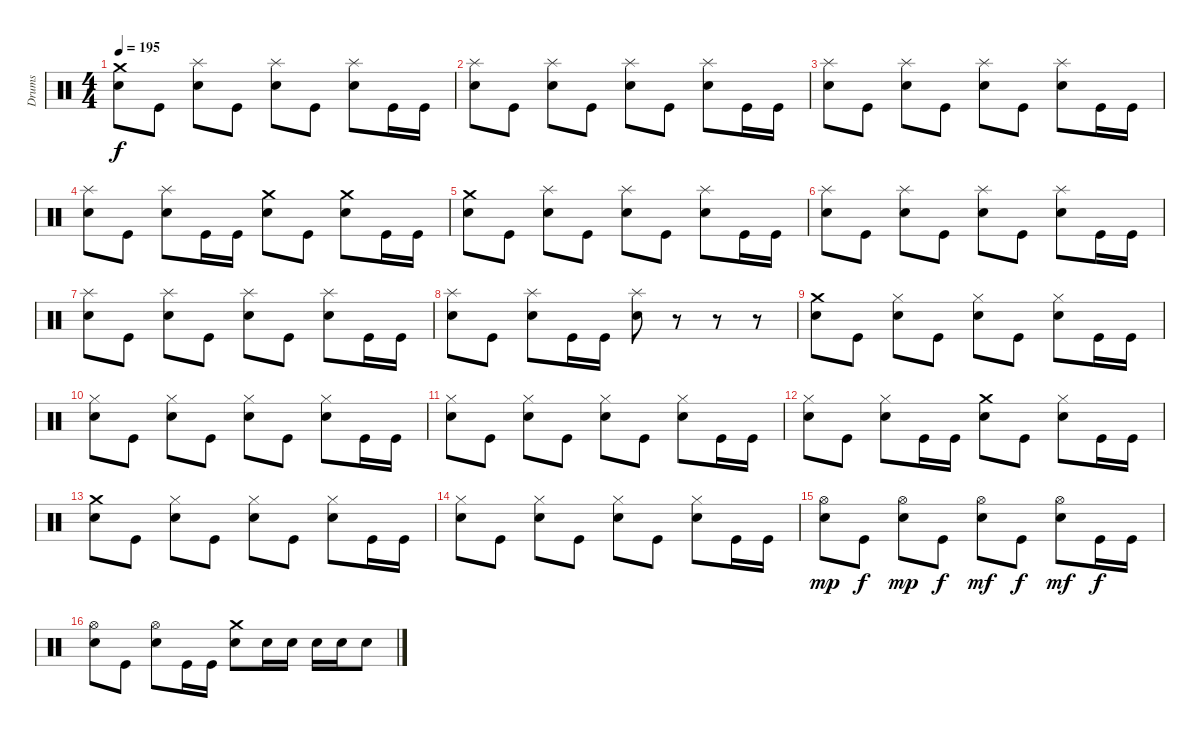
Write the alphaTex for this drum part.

\track ("Drums" "Drums") {instrument percussion}
\staff {score}
\articulation defaults
\ts (4 4)
\tempo 195
\clef neutral
\ks c
("Crash medium (hit)" "Electric Snare (hit)").8{dy f} "Kick (hit)".8 ("Splash (hit)" "Electric Snare (hit)").8 "Kick (hit)".8 ("Splash (hit)" "Electric Snare (hit)").8 "Kick (hit)".8 ("Splash (hit)" "Electric Snare (hit)").8 "Kick (hit)".16 "Kick (hit)".16 |
("Splash (hit)" "Electric Snare (hit)").8 "Kick (hit)".8 ("Splash (hit)" "Electric Snare (hit)").8 "Kick (hit)".8 ("Splash (hit)" "Electric Snare (hit)").8 "Kick (hit)".8 ("Splash (hit)" "Electric Snare (hit)").8 "Kick (hit)".16 "Kick (hit)".16 |
("Splash (hit)" "Electric Snare (hit)").8 "Kick (hit)".8 ("Splash (hit)" "Electric Snare (hit)").8 "Kick (hit)".8 ("Splash (hit)" "Electric Snare (hit)").8 "Kick (hit)".8 ("Splash (hit)" "Electric Snare (hit)").8 "Kick (hit)".16 "Kick (hit)".16 |
("Splash (hit)" "Electric Snare (hit)").8 "Kick (hit)".8 ("Splash (hit)" "Electric Snare (hit)").8 "Kick (hit)".16 "Kick (hit)".16 ("Crash medium (hit)" "Electric Snare (hit)").8 "Kick (hit)".8 ("Crash medium (hit)" "Electric Snare (hit)").8 "Kick (hit)".16 "Kick (hit)".16 |
("Crash medium (hit)" "Electric Snare (hit)").8 "Kick (hit)".8 ("Splash (hit)" "Electric Snare (hit)").8 "Kick (hit)".8 ("Splash (hit)" "Electric Snare (hit)").8 "Kick (hit)".8 ("Splash (hit)" "Electric Snare (hit)").8 "Kick (hit)".16 "Kick (hit)".16 |
("Splash (hit)" "Electric Snare (hit)").8 "Kick (hit)".8 ("Splash (hit)" "Electric Snare (hit)").8 "Kick (hit)".8 ("Splash (hit)" "Electric Snare (hit)").8 "Kick (hit)".8 ("Splash (hit)" "Electric Snare (hit)").8 "Kick (hit)".16 "Kick (hit)".16 |
("Splash (hit)" "Electric Snare (hit)").8 "Kick (hit)".8 ("Splash (hit)" "Electric Snare (hit)").8 "Kick (hit)".8 ("Splash (hit)" "Electric Snare (hit)").8 "Kick (hit)".8 ("Splash (hit)" "Electric Snare (hit)").8 "Kick (hit)".16 "Kick (hit)".16 |
("Splash (hit)" "Electric Snare (hit)").8 "Kick (hit)".8 ("Splash (hit)" "Electric Snare (hit)").8 "Kick (hit)".16 "Kick (hit)".16 ("Splash (hit)" "Electric Snare (hit)").8 r.8 r.8 r.8 |
("Crash medium (hit)" "Electric Snare (hit)").8 "Kick (hit)".8 ("Hi-Hat (closed)" "Electric Snare (hit)").8 "Kick (hit)".8 ("Hi-Hat (closed)" "Electric Snare (hit)").8 "Kick (hit)".8 ("Hi-Hat (closed)" "Electric Snare (hit)").8 "Kick (hit)".16 "Kick (hit)".16 |
("Hi-Hat (closed)" "Electric Snare (hit)").8 "Kick (hit)".8 ("Hi-Hat (closed)" "Electric Snare (hit)").8 "Kick (hit)".8 ("Hi-Hat (closed)" "Electric Snare (hit)").8 "Kick (hit)".8 ("Hi-Hat (closed)" "Electric Snare (hit)").8 "Kick (hit)".16 "Kick (hit)".16 |
("Hi-Hat (closed)" "Electric Snare (hit)").8 "Kick (hit)".8 ("Hi-Hat (closed)" "Electric Snare (hit)").8 "Kick (hit)".8 ("Hi-Hat (closed)" "Electric Snare (hit)").8 "Kick (hit)".8 ("Hi-Hat (closed)" "Electric Snare (hit)").8 "Kick (hit)".16 "Kick (hit)".16 |
("Hi-Hat (closed)" "Electric Snare (hit)").8 "Kick (hit)".8 ("Hi-Hat (closed)" "Electric Snare (hit)").8 "Kick (hit)".16 "Kick (hit)".16 ("Crash medium (hit)" "Electric Snare (hit)").8 "Kick (hit)".8 ("Hi-Hat (closed)" "Electric Snare (hit)").8 "Kick (hit)".16 "Kick (hit)".16 |
("Crash medium (hit)" "Electric Snare (hit)").8 "Kick (hit)".8 ("Hi-Hat (closed)" "Electric Snare (hit)").8 "Kick (hit)".8 ("Hi-Hat (closed)" "Electric Snare (hit)").8 "Kick (hit)".8 ("Hi-Hat (closed)" "Electric Snare (hit)").8 "Kick (hit)".16 "Kick (hit)".16 |
("Hi-Hat (closed)" "Electric Snare (hit)").8 "Kick (hit)".8 ("Hi-Hat (closed)" "Electric Snare (hit)").8 "Kick (hit)".8 ("Hi-Hat (closed)" "Electric Snare (hit)").8 "Kick (hit)".8 ("Hi-Hat (closed)" "Electric Snare (hit)").8 "Kick (hit)".16 "Kick (hit)".16 |
("Hi-Hat (open)" "Electric Snare (hit)").8{dy mp} "Kick (hit)".8{dy f} ("Hi-Hat (open)" "Electric Snare (hit)").8{dy mp} "Kick (hit)".8{dy f} ("Hi-Hat (open)" "Electric Snare (hit)").8{dy mf} "Kick (hit)".8{dy f} ("Hi-Hat (open)" "Electric Snare (hit)").8{dy mf} "Kick (hit)".16{dy f} "Kick (hit)".16 |
("Hi-Hat (open)" "Electric Snare (hit)").8 "Kick (hit)".8 ("Hi-Hat (open)" "Electric Snare (hit)").8 "Kick (hit)".16 "Kick (hit)".16 ("Crash medium (hit)" "Electric Snare (hit)").8 "Electric Snare (hit)".16 "Electric Snare (hit)".16 "Electric Snare (hit)".16 "Electric Snare (hit)".16 "Electric Snare (hit)".8
